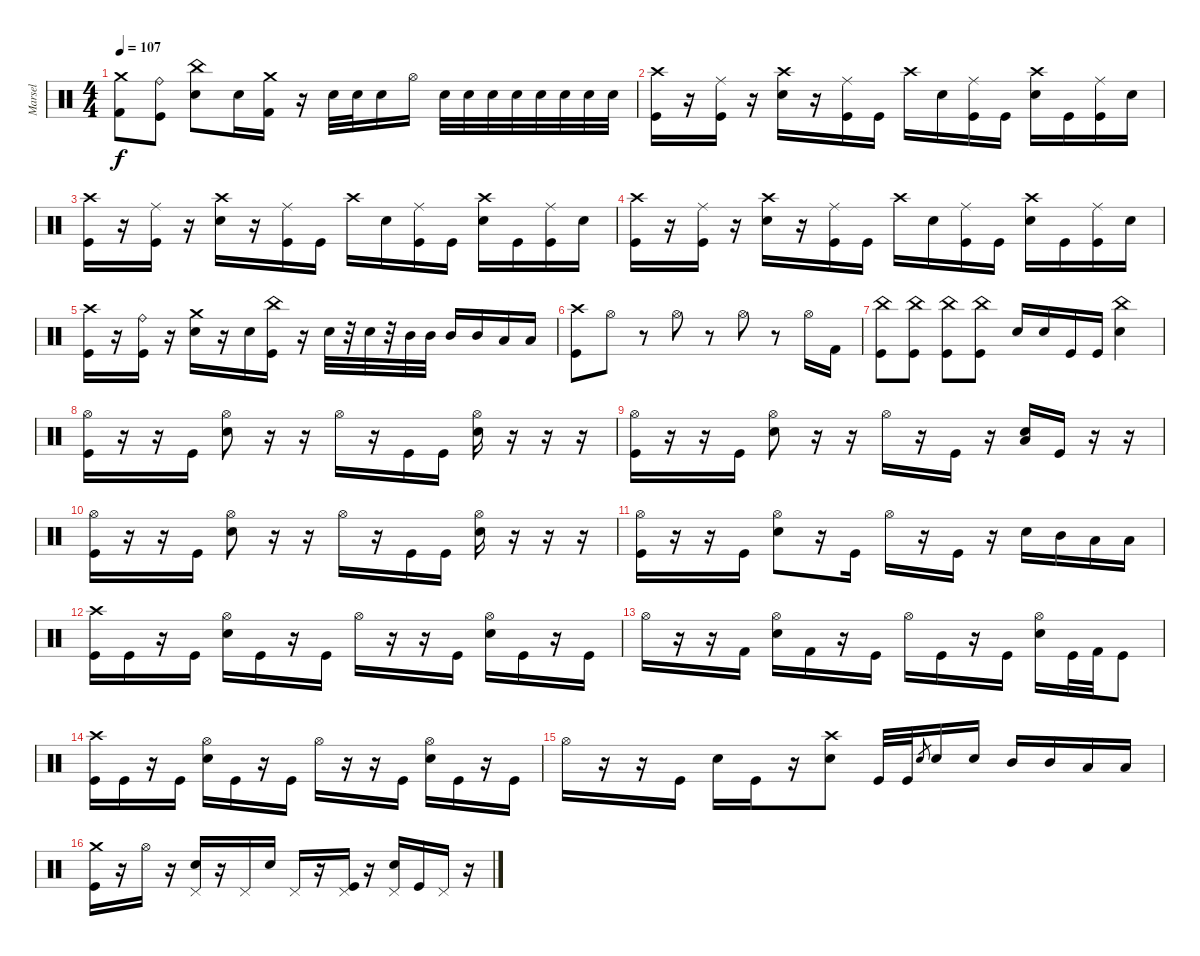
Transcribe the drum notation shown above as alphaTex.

\track ("Marsel" "Marsel") {instrument percussion}
\staff {score}
\articulation defaults
\ts (4 4)
\tempo 107
\clef neutral
\ks c
("Crash medium (hit)" "Kick (hit) 2").8{dy f} ("Ride (bell)" "Kick (hit)").8 ("China (hit)" "Snare (hit) 2").8 "Snare (hit) 2".16 ("Crash medium (hit)" "Kick (hit) 2").16 r.16 "Snare (hit) 2".32 "Snare (hit) 2".32 "Snare (hit) 2".16 "Hi-Hat (open)".16 "Snare (hit) 2".32 "Snare (hit) 2".32 "Snare (hit) 2".32 "Snare (hit) 2".32 "Snare (hit) 2".32 "Snare (hit) 2".32 "Snare (hit) 2".32 "Snare (hit) 2".32 |
("Crash high (hit)" "Kick (hit)").16 r.16 ("Ride (middle)" "Kick (hit)").16 r.16 ("Crash high (hit)" "Snare (hit) 2").16 r.16 ("Ride (middle)" "Kick (hit)").16 "Kick (hit)".16 "Crash high (hit)".16 "Snare (hit) 2".16 ("Ride (middle)" "Kick (hit)").16 "Kick (hit)".16 ("Crash high (hit)" "Snare (hit) 2").16 "Kick (hit)".16 ("Ride (middle)" "Kick (hit)").16 "Snare (hit) 2".16 |
("Crash high (hit)" "Kick (hit)").16 r.16 ("Ride (middle)" "Kick (hit)").16 r.16 ("Crash high (hit)" "Snare (hit) 2").16 r.16 ("Ride (middle)" "Kick (hit)").16 "Kick (hit)".16 "Crash high (hit)".16 "Snare (hit) 2".16 ("Ride (middle)" "Kick (hit)").16 "Kick (hit)".16 ("Crash high (hit)" "Snare (hit) 2").16 "Kick (hit)".16 ("Ride (middle)" "Kick (hit)").16 "Snare (hit) 2".16 |
("Crash high (hit)" "Kick (hit)").16 r.16 ("Ride (middle)" "Kick (hit)").16 r.16 ("Crash high (hit)" "Snare (hit) 2").16 r.16 ("Ride (middle)" "Kick (hit)").16 "Kick (hit)".16 "Crash high (hit)".16 "Snare (hit) 2".16 ("Ride (middle)" "Kick (hit)").16 "Kick (hit)".16 ("Crash high (hit)" "Snare (hit) 2").16 "Kick (hit)".16 ("Ride (middle)" "Kick (hit)").16 "Snare (hit) 2".16 |
("Crash high (hit)" "Kick (hit)").16 r.16 ("Ride (bell)" "Kick (hit)").16 r.16 ("Crash medium (hit)" "Snare (hit) 2").16 r.16 "Snare (hit) 2".16 ("China (hit)" "Kick (hit)").16 r.16 "Snare (hit) 2".32 r.32 "Snare (hit) 2".32 r.32 "Mid Tom (hit)".32 "Mid Tom (hit)".32 "Mid Tom (hit)".16 "Mid Tom (hit)".16 "Low Tom (hit)".16 "Low Tom (hit)".16 |
("Crash high (hit)" "Kick (hit)").8 "Hi-Hat (open)".8 r.8 "Hi-Hat (open)".8 r.8 "Hi-Hat (open)".8 r.8 "Hi-Hat (open)".16 "Kick (hit) 2".16 |
("China (hit)" "Kick (hit)").8 ("China (hit)" "Kick (hit)").8 ("China (hit)" "Kick (hit)").8 ("China (hit)" "Kick (hit)").8 "Snare (hit) 2".16 "Snare (hit) 2".16 "Kick (hit)".16 "Kick (hit)".16 ("China (hit)" "Snare (hit) 2").4 |
("Hi-Hat (open)" "Kick (hit)").16 r.16 r.16 "Kick (hit)".16 ("Hi-Hat (open)" "Snare (hit) 2").8 r.16 r.16 "Hi-Hat (open)".16 r.16 "Kick (hit)".16 "Kick (hit)".16 ("Hi-Hat (open)" "Snare (hit) 2").16 r.16 r.16 r.16 |
("Hi-Hat (open)" "Kick (hit)").16 r.16 r.16 "Kick (hit)".16 ("Hi-Hat (open)" "Snare (hit) 2").8 r.16 r.16 "Hi-Hat (open)".16 r.16 "Kick (hit)".16 r.16 ("Snare (hit) 2" "Low Tom (hit)").16 "Kick (hit)".16 r.16 r.16 |
("Hi-Hat (open)" "Kick (hit)").16 r.16 r.16 "Kick (hit)".16 ("Hi-Hat (open)" "Snare (hit) 2").8 r.16 r.16 "Hi-Hat (open)".16 r.16 "Kick (hit)".16 "Kick (hit)".16 ("Hi-Hat (open)" "Snare (hit) 2").16 r.16 r.16 r.16 |
("Hi-Hat (open)" "Kick (hit)").16 r.16 r.16 "Kick (hit)".16 ("Hi-Hat (open)" "Snare (hit) 2").8 r.16 "Kick (hit)".16 "Hi-Hat (open)".16 r.16 "Kick (hit)".16 r.16 "Snare (hit) 2".16 "Mid Tom (hit)".16 "Low Tom (hit)".16 "Low Tom (hit)".16 |
("Crash high (hit)" "Kick (hit)").16 "Kick (hit)".16 r.16 "Kick (hit)".16 ("Hi-Hat (open)" "Snare (hit) 2").16 "Kick (hit)".16 r.16 "Kick (hit)".16 "Hi-Hat (open)".16 r.16 r.16 "Kick (hit)".16 ("Hi-Hat (open)" "Snare (hit) 2").16 "Kick (hit)".16 r.16 "Kick (hit)".16 |
"Hi-Hat (open)".16 r.16 r.16 "Kick (hit) 2".16 ("Hi-Hat (open)" "Snare (hit) 2").16 "Kick (hit) 2".16 r.16 "Kick (hit)".16 "Hi-Hat (open)".16 "Kick (hit)".16 r.16 "Kick (hit)".16 ("Hi-Hat (open)" "Snare (hit) 2").16 "Kick (hit)".32 "Kick (hit) 2".32 "Kick (hit)".8 |
("Crash high (hit)" "Kick (hit)").16 "Kick (hit)".16 r.16 "Kick (hit)".16 ("Hi-Hat (open)" "Snare (hit) 2").16 "Kick (hit)".16 r.16 "Kick (hit)".16 "Hi-Hat (open)".16 r.16 r.16 "Kick (hit)".16 ("Hi-Hat (open)" "Snare (hit) 2").16 "Kick (hit)".16 r.16 "Kick (hit)".16 |
"Hi-Hat (open)".16 r.16 r.16 "Kick (hit)".16 "Snare (hit) 2".16 "Kick (hit)".16 r.16 ("Crash high (hit)" "Snare (hit) 2").8 "Kick (hit)".32 "Kick (hit)".32 "Snare (hit) 2".8{gr} "Snare (hit) 2".16 "Snare (hit) 2".16 "Mid Tom (hit)".16 "Mid Tom (hit)".16 "Low Tom (hit)".16 "Low Tom (hit)".16 |
("Crash medium (hit)" "Kick (hit)").16 r.16 "Hi-Hat (open)".16 r.16 ("Pedal Hi-Hat (hit)" "Snare (hit) 2").16 r.16 "Pedal Hi-Hat (hit)".16 "Snare (hit) 2".16 "Pedal Hi-Hat (hit)".16 r.16 ("Pedal Hi-Hat (hit)" "Kick (hit)").16 r.16 ("Pedal Hi-Hat (hit)" "Snare (hit) 2").16 "Kick (hit)".16 "Pedal Hi-Hat (hit)".16 r.16
